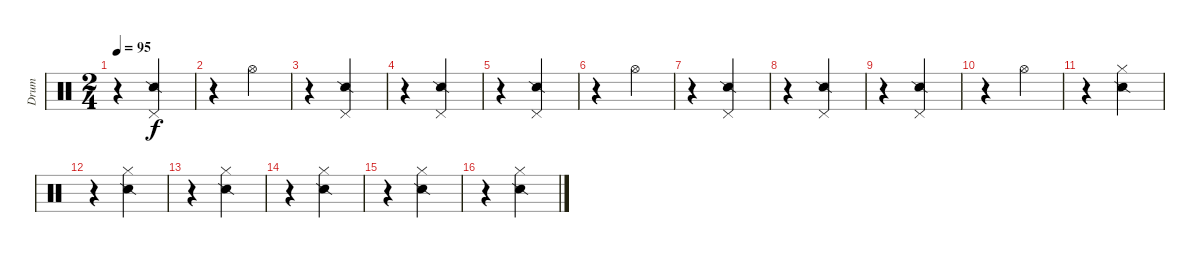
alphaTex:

\track ("Drum" "Drum") {instrument percussion}
\staff {score}
\articulation defaults
\ts (2 4)
\tempo 95
\clef neutral
\ks c
r.4{dy f} ("Snare (side stick) 2" "Pedal Hi-Hat (hit)").4 |
r.4 "Hi-Hat (open)".4 |
r.4 ("Snare (side stick) 2" "Pedal Hi-Hat (hit)").4 |
r.4 ("Snare (side stick) 2" "Pedal Hi-Hat (hit)").4 |
r.4 ("Snare (side stick) 2" "Pedal Hi-Hat (hit)").4 |
r.4 "Hi-Hat (open)".4 |
r.4 ("Snare (side stick) 2" "Pedal Hi-Hat (hit)").4 |
r.4 ("Snare (side stick) 2" "Pedal Hi-Hat (hit)").4 |
r.4 ("Snare (side stick) 2" "Pedal Hi-Hat (hit)").4 |
r.4 "Hi-Hat (open)".4 |
r.4 ("Hi-Hat (closed)" "Snare (side stick) 2").4 |
r.4 ("Hi-Hat (closed)" "Snare (side stick) 2").4 |
r.4 ("Hi-Hat (closed)" "Snare (side stick) 2").4 |
r.4 ("Hi-Hat (closed)" "Snare (side stick) 2").4 |
r.4 ("Hi-Hat (closed)" "Snare (side stick) 2").4 |
r.4 ("Hi-Hat (closed)" "Snare (side stick) 2").4
